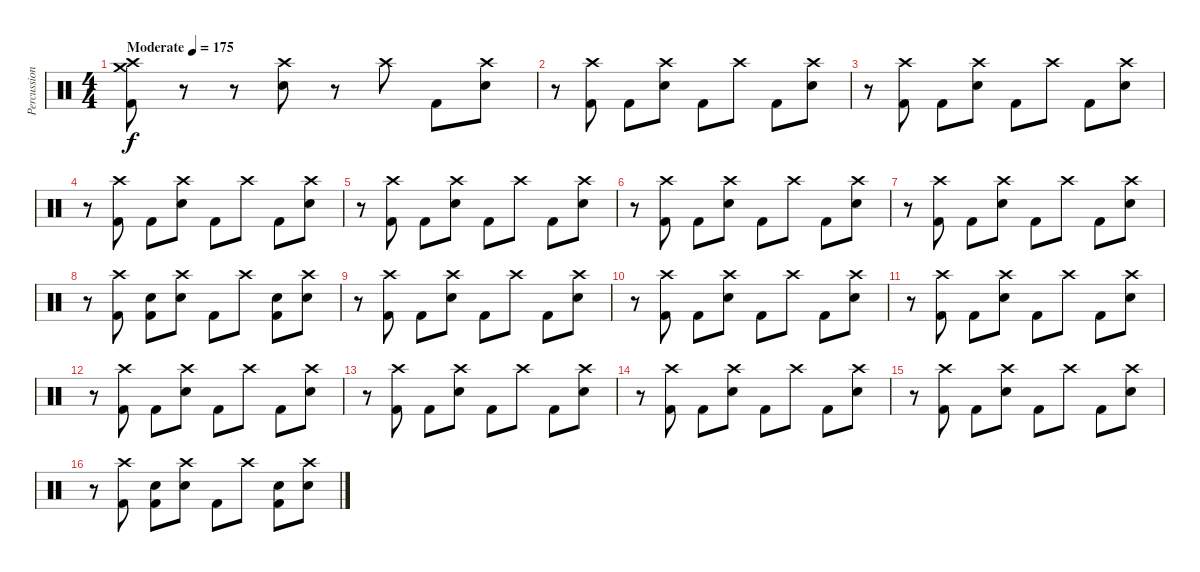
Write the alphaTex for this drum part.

\track ("Percussion" "Percussion") {instrument percussion}
\staff {score}
\articulation defaults
\ts (4 4)
\tempo (175 "Moderate")
\clef neutral
\ks c
("Crash medium (hit)" "Crash high (hit)" "Kick (hit) 2").8{dy f} r.8 r.8 ("Crash high (hit)" "Snare (hit) 2").8 r.8 "Crash high (hit)".8 "Kick (hit) 2".8 ("Crash high (hit)" "Snare (hit) 2").8 |
r.8 ("Crash high (hit)" "Kick (hit) 2").8 "Kick (hit) 2".8 ("Crash high (hit)" "Snare (hit) 2").8 "Kick (hit) 2".8 "Crash high (hit)".8 "Kick (hit) 2".8 ("Crash high (hit)" "Snare (hit) 2").8 |
r.8 ("Crash high (hit)" "Kick (hit) 2").8 "Kick (hit) 2".8 ("Crash high (hit)" "Snare (hit) 2").8 "Kick (hit) 2".8 "Crash high (hit)".8 "Kick (hit) 2".8 ("Crash high (hit)" "Snare (hit) 2").8 |
r.8 ("Crash high (hit)" "Kick (hit) 2").8 "Kick (hit) 2".8 ("Crash high (hit)" "Snare (hit) 2").8 "Kick (hit) 2".8 "Crash high (hit)".8 "Kick (hit) 2".8 ("Crash high (hit)" "Snare (hit) 2").8 |
r.8 ("Crash high (hit)" "Kick (hit) 2").8 "Kick (hit) 2".8 ("Crash high (hit)" "Snare (hit) 2").8 "Kick (hit) 2".8 "Crash high (hit)".8 "Kick (hit) 2".8 ("Crash high (hit)" "Snare (hit) 2").8 |
r.8 ("Crash high (hit)" "Kick (hit) 2").8 "Kick (hit) 2".8 ("Crash high (hit)" "Snare (hit) 2").8 "Kick (hit) 2".8 "Crash high (hit)".8 "Kick (hit) 2".8 ("Crash high (hit)" "Snare (hit) 2").8 |
r.8 ("Crash high (hit)" "Kick (hit) 2").8 "Kick (hit) 2".8 ("Crash high (hit)" "Snare (hit) 2").8 "Kick (hit) 2".8 "Crash high (hit)".8 "Kick (hit) 2".8 ("Crash high (hit)" "Snare (hit) 2").8 |
r.8 ("Crash high (hit)" "Kick (hit) 2").8 ("Snare (hit) 2" "Kick (hit) 2").8 ("Crash high (hit)" "Snare (hit) 2").8 "Kick (hit) 2".8 "Crash high (hit)".8 ("Snare (hit) 2" "Kick (hit) 2").8 ("Crash high (hit)" "Snare (hit) 2").8 |
r.8 ("Crash high (hit)" "Kick (hit) 2").8 "Kick (hit) 2".8 ("Crash high (hit)" "Snare (hit) 2").8 "Kick (hit) 2".8 "Crash high (hit)".8 "Kick (hit) 2".8 ("Crash high (hit)" "Snare (hit) 2").8 |
r.8 ("Crash high (hit)" "Kick (hit) 2").8 "Kick (hit) 2".8 ("Crash high (hit)" "Snare (hit) 2").8 "Kick (hit) 2".8 "Crash high (hit)".8 "Kick (hit) 2".8 ("Crash high (hit)" "Snare (hit) 2").8 |
r.8 ("Crash high (hit)" "Kick (hit) 2").8 "Kick (hit) 2".8 ("Crash high (hit)" "Snare (hit) 2").8 "Kick (hit) 2".8 "Crash high (hit)".8 "Kick (hit) 2".8 ("Crash high (hit)" "Snare (hit) 2").8 |
r.8 ("Crash high (hit)" "Kick (hit) 2").8 "Kick (hit) 2".8 ("Crash high (hit)" "Snare (hit) 2").8 "Kick (hit) 2".8 "Crash high (hit)".8 "Kick (hit) 2".8 ("Crash high (hit)" "Snare (hit) 2").8 |
r.8 ("Crash high (hit)" "Kick (hit) 2").8 "Kick (hit) 2".8 ("Crash high (hit)" "Snare (hit) 2").8 "Kick (hit) 2".8 "Crash high (hit)".8 "Kick (hit) 2".8 ("Crash high (hit)" "Snare (hit) 2").8 |
r.8 ("Crash high (hit)" "Kick (hit) 2").8 "Kick (hit) 2".8 ("Crash high (hit)" "Snare (hit) 2").8 "Kick (hit) 2".8 "Crash high (hit)".8 "Kick (hit) 2".8 ("Crash high (hit)" "Snare (hit) 2").8 |
r.8 ("Crash high (hit)" "Kick (hit) 2").8 "Kick (hit) 2".8 ("Crash high (hit)" "Snare (hit) 2").8 "Kick (hit) 2".8 "Crash high (hit)".8 "Kick (hit) 2".8 ("Crash high (hit)" "Snare (hit) 2").8 |
r.8 ("Crash high (hit)" "Kick (hit) 2").8 ("Snare (hit) 2" "Kick (hit) 2").8 ("Crash high (hit)" "Snare (hit) 2").8 "Kick (hit) 2".8 "Crash high (hit)".8 ("Snare (hit) 2" "Kick (hit) 2").8 ("Crash high (hit)" "Snare (hit) 2").8
